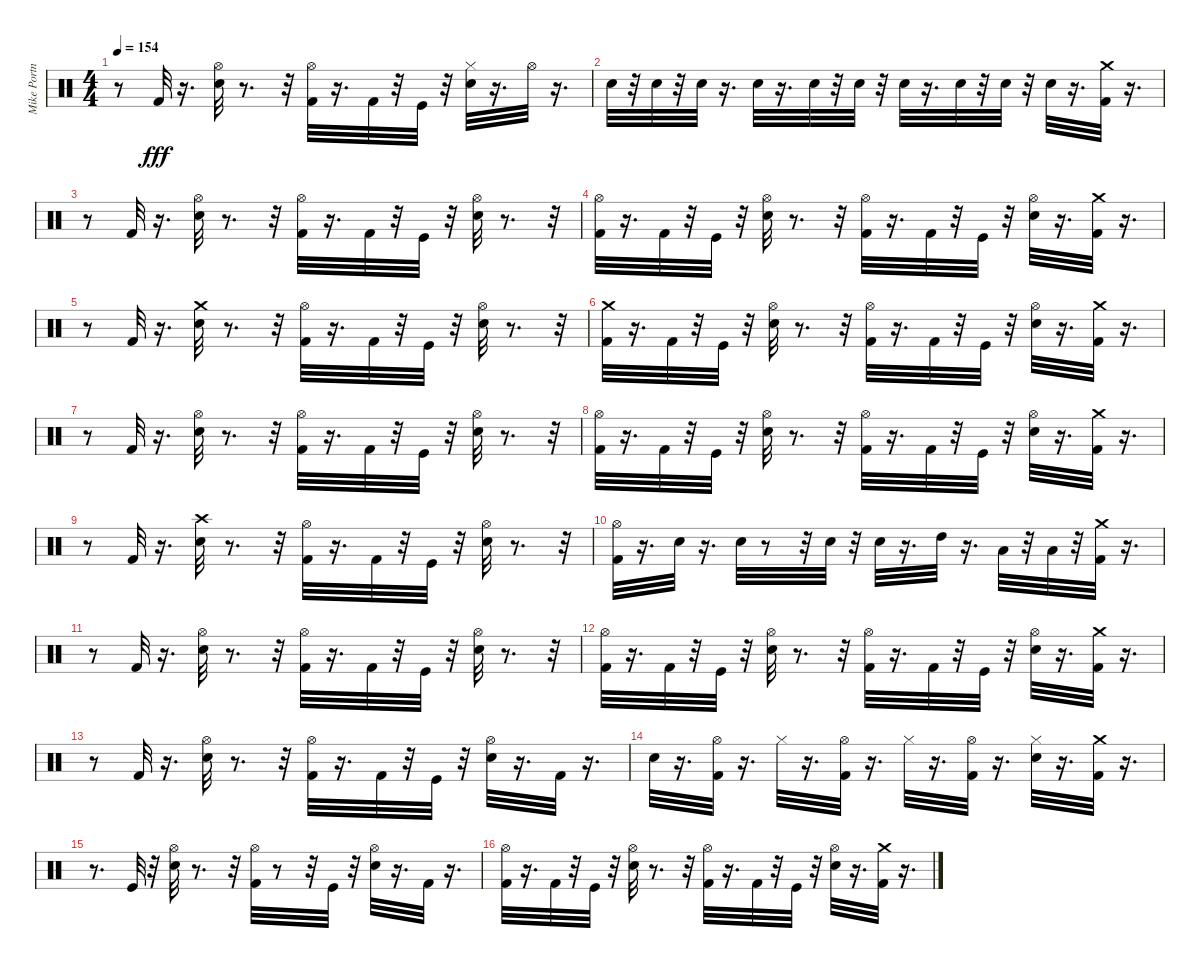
\track ("Mike Portnoy" "Mike Portn") {instrument percussion}
\staff {score}
\articulation defaults
\ts (4 4)
\tempo 154
\clef neutral
\ks c
r.8{dy fff} "Kick (hit) 2".32 r.16{d} ("Snare (hit) 2" "Hi-Hat (open)").32 r.8{d} r.32 ("Kick (hit) 2" "Hi-Hat (open)").32 r.16{d} "Kick (hit) 2".32 r.32 "Kick (hit)".32 r.32 ("Snare (hit) 2" "Hi-Hat (closed)").32 r.16{d} "Hi-Hat (open)".32 r.16{d} |
"Snare (hit) 2".32 r.32 "Snare (hit) 2".32 r.32 "Snare (hit) 2".32 r.16{d} "Snare (hit) 2".32 r.16{d} "Snare (hit) 2".32 r.32 "Snare (hit) 2".32 r.32 "Snare (hit) 2".32 r.16{d} "Snare (hit) 2".32 r.32 "Snare (hit) 2".32 r.32 "Snare (hit) 2".32 r.16{d} ("Crash medium (hit)" "Kick (hit) 2").32 r.16{d} |
r.8 "Kick (hit) 2".32 r.16{d} ("Snare (hit) 2" "Hi-Hat (open)").32 r.8{d} r.32 ("Kick (hit) 2" "Hi-Hat (open)").32 r.16{d} "Kick (hit) 2".32 r.32 "Kick (hit)".32 r.32 ("Snare (hit) 2" "Hi-Hat (open)").32 r.8{d} r.32 |
("Kick (hit) 2" "Hi-Hat (open)").32 r.16{d} "Kick (hit) 2".32 r.32 "Kick (hit)".32 r.32 ("Snare (hit) 2" "Hi-Hat (open)").32 r.8{d} r.32 ("Kick (hit) 2" "Hi-Hat (open)").32 r.16{d} "Kick (hit) 2".32 r.32 "Kick (hit)".32 r.32 ("Snare (hit) 2" "Hi-Hat (open)").32 r.16{d} ("Kick (hit) 2" "Crash medium (hit)").32 r.16{d} |
r.8 "Kick (hit) 2".32 r.16{d} ("Snare (hit) 2" "Crash medium (hit)").32 r.8{d} r.32 ("Kick (hit) 2" "Hi-Hat (open)").32 r.16{d} "Kick (hit) 2".32 r.32 "Kick (hit)".32 r.32 ("Snare (hit) 2" "Hi-Hat (open)").32 r.8{d} r.32 |
("Kick (hit) 2" "Crash medium (hit)").32 r.16{d} "Kick (hit) 2".32 r.32 "Kick (hit)".32 r.32 ("Snare (hit) 2" "Hi-Hat (open)").32 r.8{d} r.32 ("Kick (hit) 2" "Hi-Hat (open)").32 r.16{d} "Kick (hit) 2".32 r.32 "Kick (hit)".32 r.32 ("Snare (hit) 2" "Hi-Hat (open)").32 r.16{d} ("Kick (hit) 2" "Crash medium (hit)").32 r.16{d} |
r.8 "Kick (hit) 2".32 r.16{d} ("Snare (hit) 2" "Hi-Hat (open)").32 r.8{d} r.32 ("Kick (hit) 2" "Hi-Hat (open)").32 r.16{d} "Kick (hit) 2".32 r.32 "Kick (hit)".32 r.32 ("Snare (hit) 2" "Hi-Hat (open)").32 r.8{d} r.32 |
("Kick (hit) 2" "Hi-Hat (open)").32 r.16{d} "Kick (hit) 2".32 r.32 "Kick (hit)".32 r.32 ("Snare (hit) 2" "Hi-Hat (open)").32 r.8{d} r.32 ("Kick (hit) 2" "Hi-Hat (open)").32 r.16{d} "Kick (hit) 2".32 r.32 "Kick (hit)".32 r.32 ("Snare (hit) 2" "Hi-Hat (open)").32 r.16{d} ("Kick (hit) 2" "Crash medium (hit)").32 r.16{d} |
r.8 "Kick (hit) 2".32 r.16{d} ("Snare (hit) 2" "Crash high (hit)").32 r.8{d} r.32 ("Kick (hit) 2" "Hi-Hat (open)").32 r.16{d} "Kick (hit) 2".32 r.32 "Kick (hit)".32 r.32 ("Snare (hit) 2" "Hi-Hat (open)").32 r.8{d} r.32 |
("Kick (hit) 2" "Hi-Hat (open)").32 r.16{d} "Snare (hit) 2".32 r.16{d} "Snare (hit) 2".32 r.8 r.32 "Snare (hit) 2".32 r.32 "Snare (hit) 2".32 r.16{d} "High Tom (hit)".32 r.16{d} "Low Tom (hit)".32 r.32 "Low Tom (hit)".32 r.32 ("Crash medium (hit)" "Kick (hit) 2").32 r.16{d} |
r.8 "Kick (hit) 2".32 r.16{d} ("Snare (hit) 2" "Hi-Hat (open)").32 r.8{d} r.32 ("Kick (hit) 2" "Hi-Hat (open)").32 r.16{d} "Kick (hit) 2".32 r.32 "Kick (hit)".32 r.32 ("Snare (hit) 2" "Hi-Hat (open)").32 r.8{d} r.32 |
("Kick (hit) 2" "Hi-Hat (open)").32 r.16{d} "Kick (hit) 2".32 r.32 "Kick (hit)".32 r.32 ("Snare (hit) 2" "Hi-Hat (open)").32 r.8{d} r.32 ("Kick (hit) 2" "Hi-Hat (open)").32 r.16{d} "Kick (hit) 2".32 r.32 "Kick (hit)".32 r.32 ("Snare (hit) 2" "Hi-Hat (open)").32 r.16{d} ("Kick (hit) 2" "Crash medium (hit)").32 r.16{d} |
r.8 "Kick (hit) 2".32 r.16{d} ("Snare (hit) 2" "Hi-Hat (open)").32 r.8{d} r.32 ("Kick (hit) 2" "Hi-Hat (open)").32 r.16{d} "Kick (hit) 2".32 r.32 "Kick (hit)".32 r.32 ("Snare (hit) 2" "Hi-Hat (open)").32 r.16{d} "Kick (hit) 2".32 r.16{d} |
"Snare (hit) 2".32 r.16{d} ("Kick (hit) 2" "Hi-Hat (open)").32 r.16{d} "Hi-Hat (closed)".32 r.16{d} ("Kick (hit) 2" "Hi-Hat (open)").32 r.16{d} "Hi-Hat (closed)".32 r.16{d} ("Kick (hit) 2" "Hi-Hat (open)").32 r.16{d} ("Snare (hit) 2" "Hi-Hat (closed)").32 r.16{d} ("Kick (hit) 2" "Crash medium (hit)").32 r.16{d} |
r.8{d} "Kick (hit)".32 r.32 ("Snare (hit) 2" "Hi-Hat (open)").32 r.8{d} r.32 ("Kick (hit) 2" "Hi-Hat (open)").32 r.8 r.32 "Kick (hit)".32 r.32 ("Snare (hit) 2" "Hi-Hat (open)").32 r.16{d} "Kick (hit) 2".32 r.16{d} |
("Kick (hit) 2" "Hi-Hat (open)").32 r.16{d} "Kick (hit) 2".32 r.32 "Kick (hit)".32 r.32 ("Snare (hit) 2" "Hi-Hat (open)").32 r.8{d} r.32 ("Kick (hit) 2" "Hi-Hat (open)").32 r.16{d} "Kick (hit) 2".32 r.32 "Kick (hit)".32 r.32 ("Snare (hit) 2" "Hi-Hat (open)").32 r.16{d} ("Kick (hit) 2" "Crash medium (hit)").32 r.16{d}
